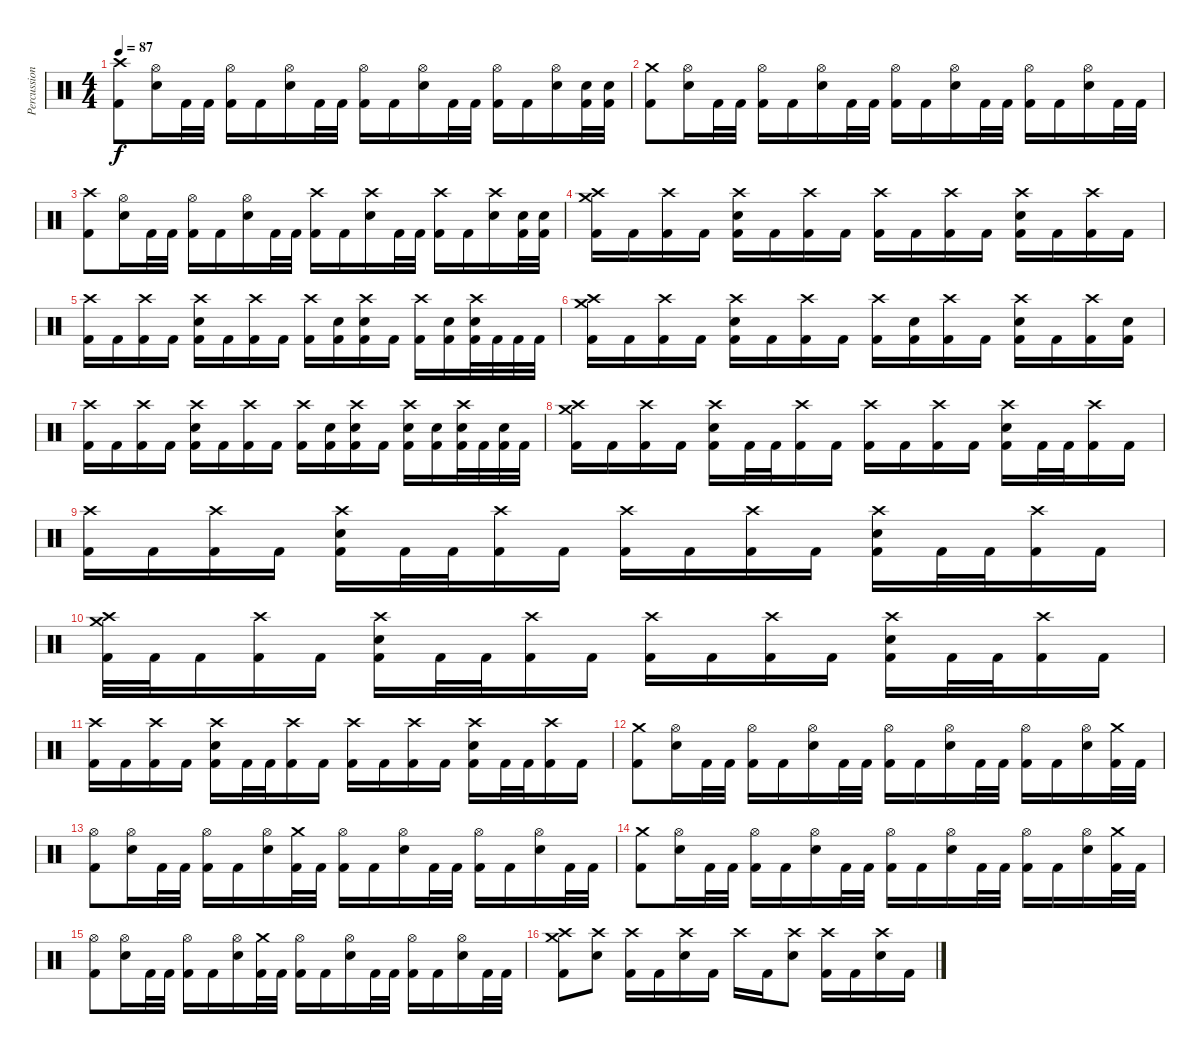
\track ("Percussion" "Percussion") {instrument percussion}
\staff {score}
\articulation defaults
\ts (4 4)
\tempo 87
\clef neutral
\ks c
("Crash high (hit)" "Kick (hit) 2").8{dy f} ("Hi-Hat (open)" "Electric Snare (hit)").16 "Kick (hit) 2".32 "Kick (hit) 2".32 ("Hi-Hat (open)" "Kick (hit) 2").16 "Kick (hit) 2".16 ("Hi-Hat (open)" "Electric Snare (hit)").16 "Kick (hit) 2".32 "Kick (hit) 2".32 ("Hi-Hat (open)" "Kick (hit) 2").16 "Kick (hit) 2".16 ("Hi-Hat (open)" "Electric Snare (hit)").16 "Kick (hit) 2".32 "Kick (hit) 2".32 ("Hi-Hat (open)" "Kick (hit) 2").16 "Kick (hit) 2".16 ("Hi-Hat (open)" "Electric Snare (hit)").16 ("Electric Snare (hit)" "Kick (hit) 2").32 ("Electric Snare (hit)" "Kick (hit) 2").32 |
("Crash medium (hit)" "Kick (hit) 2").8 ("Hi-Hat (open)" "Electric Snare (hit)").16 "Kick (hit) 2".32 "Kick (hit) 2".32 ("Hi-Hat (open)" "Kick (hit) 2").16 "Kick (hit) 2".16 ("Hi-Hat (open)" "Electric Snare (hit)").16 "Kick (hit) 2".32 "Kick (hit) 2".32 ("Hi-Hat (open)" "Kick (hit) 2").16 "Kick (hit) 2".16 ("Hi-Hat (open)" "Electric Snare (hit)").16 "Kick (hit) 2".32 "Kick (hit) 2".32 ("Hi-Hat (open)" "Kick (hit) 2").16 "Kick (hit) 2".16 ("Hi-Hat (open)" "Electric Snare (hit)").16 "Kick (hit) 2".32 "Kick (hit) 2".32 |
("Crash high (hit)" "Kick (hit) 2").8 ("Hi-Hat (open)" "Electric Snare (hit)").16 "Kick (hit) 2".32 "Kick (hit) 2".32 ("Hi-Hat (open)" "Kick (hit) 2").16 "Kick (hit) 2".16 ("Hi-Hat (open)" "Electric Snare (hit)").16 "Kick (hit) 2".32 "Kick (hit) 2".32 ("Crash high (hit)" "Kick (hit) 2").16 "Kick (hit) 2".16 ("Crash high (hit)" "Electric Snare (hit)").16 "Kick (hit) 2".32 "Kick (hit) 2".32 ("Crash high (hit)" "Kick (hit) 2").16 "Kick (hit) 2".16 ("Crash high (hit)" "Electric Snare (hit)").16 ("Electric Snare (hit)" "Kick (hit) 2").32 ("Electric Snare (hit)" "Kick (hit) 2").32 |
("Crash medium (hit)" "Crash high (hit)" "Kick (hit) 2").16 "Kick (hit) 2".16 ("Crash high (hit)" "Kick (hit) 2").16 "Kick (hit) 2".16 ("Crash high (hit)" "Electric Snare (hit)" "Kick (hit) 2").16 "Kick (hit) 2".16 ("Crash high (hit)" "Kick (hit) 2").16 "Kick (hit) 2".16 ("Crash high (hit)" "Kick (hit) 2").16 "Kick (hit) 2".16 ("Crash high (hit)" "Kick (hit) 2").16 "Kick (hit) 2".16 ("Crash high (hit)" "Electric Snare (hit)" "Kick (hit) 2").16 "Kick (hit) 2".16 ("Crash high (hit)" "Kick (hit) 2").16 "Kick (hit) 2".16 |
("Crash high (hit)" "Kick (hit) 2").16 "Kick (hit) 2".16 ("Crash high (hit)" "Kick (hit) 2").16 "Kick (hit) 2".16 ("Crash high (hit)" "Electric Snare (hit)" "Kick (hit) 2").16 "Kick (hit) 2".16 ("Crash high (hit)" "Kick (hit) 2").16 "Kick (hit) 2".16 ("Crash high (hit)" "Kick (hit) 2").16 ("Electric Snare (hit)" "Kick (hit) 2").16 ("Crash high (hit)" "Electric Snare (hit)" "Kick (hit) 2").16 "Kick (hit) 2".16 ("Crash high (hit)" "Kick (hit) 2").16 ("Electric Snare (hit)" "Kick (hit) 2").16 ("Crash high (hit)" "Electric Snare (hit)" "Kick (hit) 2").32 "Kick (hit) 2".32 "Kick (hit) 2".32 "Kick (hit) 2".32 |
("Crash medium (hit)" "Crash high (hit)" "Kick (hit) 2").16 "Kick (hit) 2".16 ("Crash high (hit)" "Kick (hit) 2").16 "Kick (hit) 2".16 ("Crash high (hit)" "Electric Snare (hit)" "Kick (hit) 2").16 "Kick (hit) 2".16 ("Crash high (hit)" "Kick (hit) 2").16 "Kick (hit) 2".16 ("Crash high (hit)" "Kick (hit) 2").16 ("Electric Snare (hit)" "Kick (hit) 2").16 ("Crash high (hit)" "Kick (hit) 2").16 "Kick (hit) 2".16 ("Crash high (hit)" "Electric Snare (hit)" "Kick (hit) 2").16 "Kick (hit) 2".16 ("Crash high (hit)" "Kick (hit) 2").16 ("Electric Snare (hit)" "Kick (hit) 2").16 |
("Crash high (hit)" "Kick (hit) 2").16 "Kick (hit) 2".16 ("Crash high (hit)" "Kick (hit) 2").16 "Kick (hit) 2".16 ("Crash high (hit)" "Electric Snare (hit)" "Kick (hit) 2").16 "Kick (hit) 2".16 ("Crash high (hit)" "Kick (hit) 2").16 "Kick (hit) 2".16 ("Crash high (hit)" "Kick (hit) 2").16 ("Electric Snare (hit)" "Kick (hit) 2").16 ("Crash high (hit)" "Electric Snare (hit)" "Kick (hit) 2").16 "Kick (hit) 2".16 ("Crash high (hit)" "Electric Snare (hit)" "Kick (hit) 2").16 ("Electric Snare (hit)" "Kick (hit) 2").16 ("Crash high (hit)" "Electric Snare (hit)" "Kick (hit) 2").32 "Kick (hit) 2".32 ("Electric Snare (hit)" "Kick (hit) 2").32 "Kick (hit) 2".32 |
("Crash medium (hit)" "Crash high (hit)" "Kick (hit) 2").16 "Kick (hit) 2".16 ("Crash high (hit)" "Kick (hit) 2").16 "Kick (hit) 2".16 ("Crash high (hit)" "Electric Snare (hit)" "Kick (hit) 2").16 "Kick (hit) 2".32 "Kick (hit) 2".32 ("Crash high (hit)" "Kick (hit) 2").16 "Kick (hit) 2".16 ("Crash high (hit)" "Kick (hit) 2").16 "Kick (hit) 2".16 ("Crash high (hit)" "Kick (hit) 2").16 "Kick (hit) 2".16 ("Crash high (hit)" "Electric Snare (hit)" "Kick (hit) 2").16 "Kick (hit) 2".32 "Kick (hit) 2".32 ("Crash high (hit)" "Kick (hit) 2").16 "Kick (hit) 2".16 |
("Crash high (hit)" "Kick (hit) 2").16 "Kick (hit) 2".16 ("Crash high (hit)" "Kick (hit) 2").16 "Kick (hit) 2".16 ("Crash high (hit)" "Electric Snare (hit)" "Kick (hit) 2").16 "Kick (hit) 2".32 "Kick (hit) 2".32 ("Crash high (hit)" "Kick (hit) 2").16 "Kick (hit) 2".16 ("Crash high (hit)" "Kick (hit) 2").16 "Kick (hit) 2".16 ("Crash high (hit)" "Kick (hit) 2").16 "Kick (hit) 2".16 ("Crash high (hit)" "Electric Snare (hit)" "Kick (hit) 2").16 "Kick (hit) 2".32 "Kick (hit) 2".32 ("Crash high (hit)" "Kick (hit) 2").16 "Kick (hit) 2".16 |
("Crash medium (hit)" "Crash high (hit)" "Kick (hit) 2").32 "Kick (hit) 2".32 "Kick (hit) 2".16 ("Crash high (hit)" "Kick (hit) 2").16 "Kick (hit) 2".16 ("Crash high (hit)" "Electric Snare (hit)" "Kick (hit) 2").16 "Kick (hit) 2".32 "Kick (hit) 2".32 ("Crash high (hit)" "Kick (hit) 2").16 "Kick (hit) 2".16 ("Crash high (hit)" "Kick (hit) 2").16 "Kick (hit) 2".16 ("Crash high (hit)" "Kick (hit) 2").16 "Kick (hit) 2".16 ("Crash high (hit)" "Electric Snare (hit)" "Kick (hit) 2").16 "Kick (hit) 2".32 "Kick (hit) 2".32 ("Crash high (hit)" "Kick (hit) 2").16 "Kick (hit) 2".16 |
("Crash high (hit)" "Kick (hit) 2").16 "Kick (hit) 2".16 ("Crash high (hit)" "Kick (hit) 2").16 "Kick (hit) 2".16 ("Crash high (hit)" "Electric Snare (hit)" "Kick (hit) 2").16 "Kick (hit) 2".32 "Kick (hit) 2".32 ("Crash high (hit)" "Kick (hit) 2").16 "Kick (hit) 2".16 ("Crash high (hit)" "Kick (hit) 2").16 "Kick (hit) 2".16 ("Crash high (hit)" "Kick (hit) 2").16 "Kick (hit) 2".16 ("Crash high (hit)" "Electric Snare (hit)" "Kick (hit) 2").16 "Kick (hit) 2".32 "Kick (hit) 2".32 ("Crash high (hit)" "Kick (hit) 2").16 "Kick (hit) 2".16 |
("Crash medium (hit)" "Kick (hit) 2").8 ("Hi-Hat (open)" "Electric Snare (hit)").16 "Kick (hit) 2".32 "Kick (hit) 2".32 ("Hi-Hat (open)" "Kick (hit) 2").16 "Kick (hit) 2".16 ("Hi-Hat (open)" "Electric Snare (hit)").16 "Kick (hit) 2".32 "Kick (hit) 2".32 ("Hi-Hat (open)" "Kick (hit) 2").16 "Kick (hit) 2".16 ("Hi-Hat (open)" "Electric Snare (hit)").16 "Kick (hit) 2".32 "Kick (hit) 2".32 ("Hi-Hat (open)" "Kick (hit) 2").16 "Kick (hit) 2".16 ("Hi-Hat (open)" "Electric Snare (hit)").16 ("Crash medium (hit)" "Kick (hit) 2").32 "Kick (hit) 2".32 |
("Hi-Hat (open)" "Kick (hit) 2").8 ("Hi-Hat (open)" "Electric Snare (hit)").16 "Kick (hit) 2".32 "Kick (hit) 2".32 ("Hi-Hat (open)" "Kick (hit) 2").16 "Kick (hit) 2".16 ("Hi-Hat (open)" "Electric Snare (hit)").16 ("Crash medium (hit)" "Kick (hit) 2").32 "Kick (hit) 2".32 ("Hi-Hat (open)" "Kick (hit) 2").16 "Kick (hit) 2".16 ("Hi-Hat (open)" "Electric Snare (hit)").16 "Kick (hit) 2".32 "Kick (hit) 2".32 ("Hi-Hat (open)" "Kick (hit) 2").16 "Kick (hit) 2".16 ("Hi-Hat (open)" "Electric Snare (hit)").16 "Kick (hit) 2".32 "Kick (hit) 2".32 |
("Crash medium (hit)" "Kick (hit) 2").8 ("Hi-Hat (open)" "Electric Snare (hit)").16 "Kick (hit) 2".32 "Kick (hit) 2".32 ("Hi-Hat (open)" "Kick (hit) 2").16 "Kick (hit) 2".16 ("Hi-Hat (open)" "Electric Snare (hit)").16 "Kick (hit) 2".32 "Kick (hit) 2".32 ("Hi-Hat (open)" "Kick (hit) 2").16 "Kick (hit) 2".16 ("Hi-Hat (open)" "Electric Snare (hit)").16 "Kick (hit) 2".32 "Kick (hit) 2".32 ("Hi-Hat (open)" "Kick (hit) 2").16 "Kick (hit) 2".16 ("Hi-Hat (open)" "Electric Snare (hit)").16 ("Crash medium (hit)" "Kick (hit) 2").32 "Kick (hit) 2".32 |
("Hi-Hat (open)" "Kick (hit) 2").8 ("Hi-Hat (open)" "Electric Snare (hit)").16 "Kick (hit) 2".32 "Kick (hit) 2".32 ("Hi-Hat (open)" "Kick (hit) 2").16 "Kick (hit) 2".16 ("Hi-Hat (open)" "Electric Snare (hit)").16 ("Crash medium (hit)" "Kick (hit) 2").32 "Kick (hit) 2".32 ("Hi-Hat (open)" "Kick (hit) 2").16 "Kick (hit) 2".16 ("Hi-Hat (open)" "Electric Snare (hit)").16 "Kick (hit) 2".32 "Kick (hit) 2".32 ("Hi-Hat (open)" "Kick (hit) 2").16 "Kick (hit) 2".16 ("Hi-Hat (open)" "Electric Snare (hit)").16 "Kick (hit) 2".32 "Kick (hit) 2".32 |
("Crash medium (hit)" "Crash high (hit)" "Kick (hit) 2").8 ("Crash high (hit)" "Electric Snare (hit)").8 ("Crash high (hit)" "Kick (hit) 2").16 "Kick (hit) 2".16 ("Crash high (hit)" "Electric Snare (hit)").16 "Kick (hit) 2".16 "Crash high (hit)".16 "Kick (hit) 2".16 ("Crash high (hit)" "Electric Snare (hit)").8 ("Crash high (hit)" "Kick (hit) 2").16 "Kick (hit) 2".16 ("Crash high (hit)" "Electric Snare (hit)").16 "Kick (hit) 2".16
